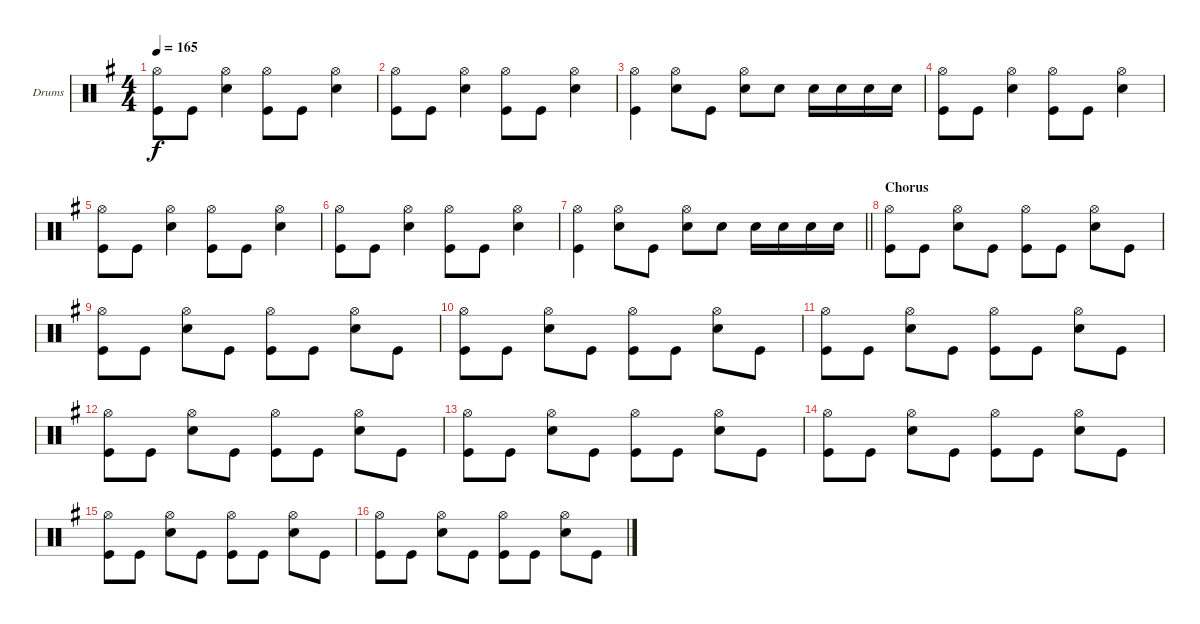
\bracketExtendMode groupsimilarinstruments
\firstSystemTrackNameOrientation horizontal
\otherSystemsTrackNameOrientation horizontal
\track ("Drumkit" "Drums") {instrument percussion}
\staff {score}
\articulation defaults
\ts (4 4)
\tempo 165
\clef neutral
\ks eminor
("Hi-Hat (open)" "Kick (hit)").8{dy f} "Kick (hit)".8 ("Hi-Hat (open)" "Snare (hit) 2").4 ("Hi-Hat (open)" "Kick (hit)").8 "Kick (hit)".8 ("Hi-Hat (open)" "Snare (hit) 2").4 |
("Hi-Hat (open)" "Kick (hit)").8 "Kick (hit)".8 ("Hi-Hat (open)" "Snare (hit) 2").4 ("Hi-Hat (open)" "Kick (hit)").8 "Kick (hit)".8 ("Hi-Hat (open)" "Snare (hit) 2").4 |
("Hi-Hat (open)" "Kick (hit)").4 ("Hi-Hat (open)" "Snare (hit) 2").8 "Kick (hit)".8 ("Hi-Hat (open)" "Snare (hit) 2").8 "Snare (hit) 2".8 "Snare (hit) 2".16 "Snare (hit) 2".16 "Snare (hit) 2".16 "Snare (hit) 2".16 |
("Hi-Hat (open)" "Kick (hit)").8 "Kick (hit)".8 ("Hi-Hat (open)" "Snare (hit) 2").4 ("Hi-Hat (open)" "Kick (hit)").8 "Kick (hit)".8 ("Hi-Hat (open)" "Snare (hit) 2").4 |
("Hi-Hat (open)" "Kick (hit)").8 "Kick (hit)".8 ("Hi-Hat (open)" "Snare (hit) 2").4 ("Hi-Hat (open)" "Kick (hit)").8 "Kick (hit)".8 ("Hi-Hat (open)" "Snare (hit) 2").4 |
("Hi-Hat (open)" "Kick (hit)").8 "Kick (hit)".8 ("Hi-Hat (open)" "Snare (hit) 2").4 ("Hi-Hat (open)" "Kick (hit)").8 "Kick (hit)".8 ("Hi-Hat (open)" "Snare (hit) 2").4 |
\barLineRight lightlight
("Hi-Hat (open)" "Kick (hit)").4 ("Hi-Hat (open)" "Snare (hit) 2").8 "Kick (hit)".8 ("Hi-Hat (open)" "Snare (hit) 2").8 "Snare (hit) 2".8 "Snare (hit) 2".16 "Snare (hit) 2".16 "Snare (hit) 2".16 "Snare (hit) 2".16 |
\section ("" "Chorus")
("Hi-Hat (open)" "Kick (hit)").8 "Kick (hit)".8 ("Hi-Hat (open)" "Snare (hit) 2").8 "Kick (hit)".8 ("Hi-Hat (open)" "Kick (hit)").8 "Kick (hit)".8 ("Hi-Hat (open)" "Snare (hit) 2").8 "Kick (hit)".8 |
("Hi-Hat (open)" "Kick (hit)").8 "Kick (hit)".8 ("Hi-Hat (open)" "Snare (hit) 2").8 "Kick (hit)".8 ("Hi-Hat (open)" "Kick (hit)").8 "Kick (hit)".8 ("Hi-Hat (open)" "Snare (hit) 2").8 "Kick (hit)".8 |
("Hi-Hat (open)" "Kick (hit)").8 "Kick (hit)".8 ("Hi-Hat (open)" "Snare (hit) 2").8 "Kick (hit)".8 ("Hi-Hat (open)" "Kick (hit)").8 "Kick (hit)".8 ("Hi-Hat (open)" "Snare (hit) 2").8 "Kick (hit)".8 |
("Hi-Hat (open)" "Kick (hit)").8 "Kick (hit)".8 ("Hi-Hat (open)" "Snare (hit) 2").8 "Kick (hit)".8 ("Hi-Hat (open)" "Kick (hit)").8 "Kick (hit)".8 ("Hi-Hat (open)" "Snare (hit) 2").8 "Kick (hit)".8 |
("Hi-Hat (open)" "Kick (hit)").8 "Kick (hit)".8 ("Hi-Hat (open)" "Snare (hit) 2").8 "Kick (hit)".8 ("Hi-Hat (open)" "Kick (hit)").8 "Kick (hit)".8 ("Hi-Hat (open)" "Snare (hit) 2").8 "Kick (hit)".8 |
("Hi-Hat (open)" "Kick (hit)").8 "Kick (hit)".8 ("Hi-Hat (open)" "Snare (hit) 2").8 "Kick (hit)".8 ("Hi-Hat (open)" "Kick (hit)").8 "Kick (hit)".8 ("Hi-Hat (open)" "Snare (hit) 2").8 "Kick (hit)".8 |
("Hi-Hat (open)" "Kick (hit)").8 "Kick (hit)".8 ("Hi-Hat (open)" "Snare (hit) 2").8 "Kick (hit)".8 ("Hi-Hat (open)" "Kick (hit)").8 "Kick (hit)".8 ("Hi-Hat (open)" "Snare (hit) 2").8 "Kick (hit)".8 |
("Hi-Hat (open)" "Kick (hit)").8 "Kick (hit)".8 ("Hi-Hat (open)" "Snare (hit) 2").8 "Kick (hit)".8 ("Hi-Hat (open)" "Kick (hit)").8 "Kick (hit)".8 ("Hi-Hat (open)" "Snare (hit) 2").8 "Kick (hit)".8 |
("Hi-Hat (open)" "Kick (hit)").8 "Kick (hit)".8 ("Hi-Hat (open)" "Snare (hit) 2").8 "Kick (hit)".8 ("Hi-Hat (open)" "Kick (hit)").8 "Kick (hit)".8 ("Hi-Hat (open)" "Snare (hit) 2").8 "Kick (hit)".8
